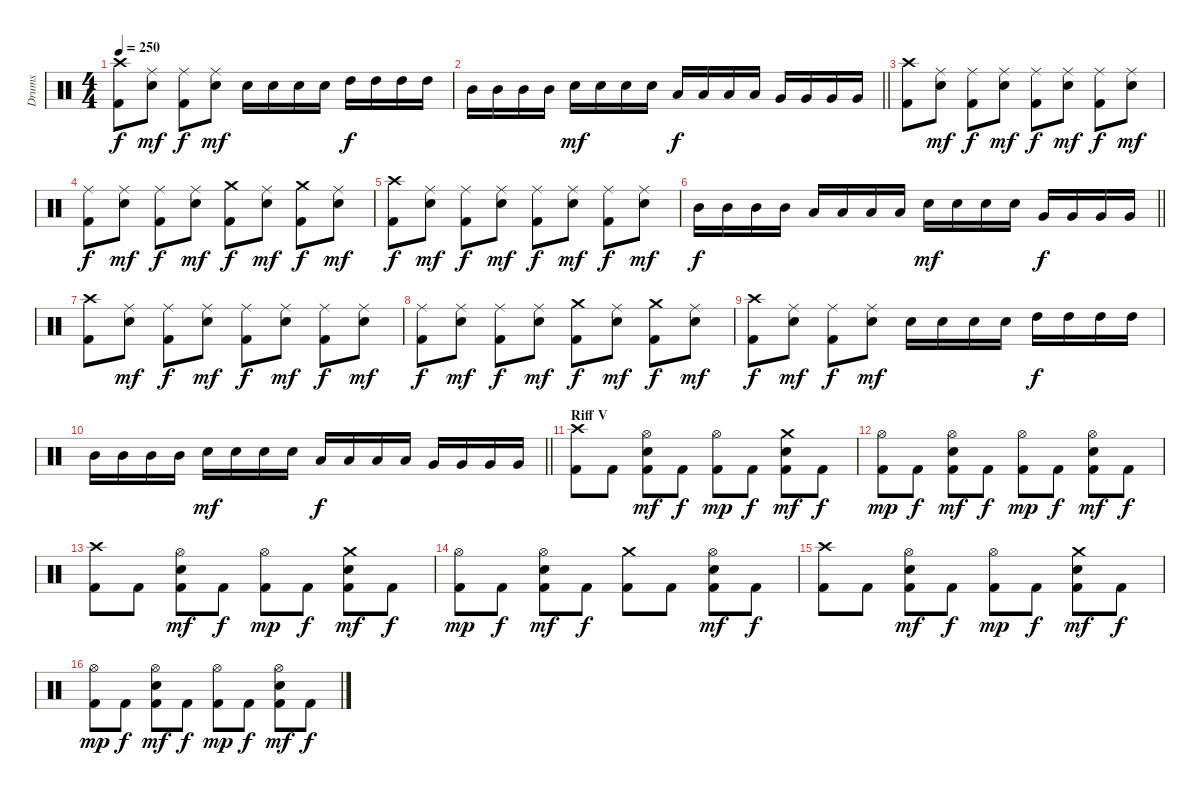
\track ("Drums" "Drums") {instrument percussion}
\staff {score}
\articulation defaults
\ts (4 4)
\tempo 250
\clef neutral
\ks c
("Crash high (hit)" "Kick (hit) 2").8{dy f} ("Ride (middle)" "Electric Snare (hit)").8{dy mf} ("Ride (middle)" "Kick (hit) 2").8{dy f} ("Ride (middle)" "Electric Snare (hit)").8{dy mf} "Electric Snare (hit)".16 "Electric Snare (hit)".16 "Electric Snare (hit)".16 "Electric Snare (hit)".16 "High Tom (hit)".16{dy f} "High Tom (hit)".16 "High Tom (hit)".16 "High Tom (hit)".16 |
\barLineRight lightlight "Mid Tom (hit)".16 "Mid Tom (hit)".16 "Mid Tom (hit)".16 "Mid Tom (hit)".16 "Electric Snare (hit)".16{dy mf} "Electric Snare (hit)".16 "Electric Snare (hit)".16 "Electric Snare (hit)".16 "Low Tom (hit)".16{dy f} "Low Tom (hit)".16 "Low Tom (hit)".16 "Low Tom (hit)".16 "Very Low Tom (hit)".16 "Very Low Tom (hit)".16 "Very Low Tom (hit)".16 "Very Low Tom (hit)".16
|
("Crash high (hit)" "Kick (hit) 2").8 ("Ride (middle)" "Electric Snare (hit)").8{dy mf} ("Ride (middle)" "Kick (hit) 2").8{dy f} ("Ride (middle)" "Electric Snare (hit)").8{dy mf} ("Ride (middle)" "Kick (hit) 2").8{dy f} ("Ride (middle)" "Electric Snare (hit)").8{dy mf} ("Ride (middle)" "Kick (hit) 2").8{dy f} ("Ride (middle)" "Electric Snare (hit)").8{dy mf} |
("Ride (middle)" "Kick (hit) 2").8{dy f} ("Ride (middle)" "Electric Snare (hit)").8{dy mf} ("Ride (middle)" "Kick (hit) 2").8{dy f} ("Ride (middle)" "Electric Snare (hit)").8{dy mf} ("Crash medium (hit)" "Kick (hit) 2").8{dy f} ("Ride (middle)" "Electric Snare (hit)").8{dy mf} ("Crash medium (hit)" "Kick (hit) 2").8{dy f} ("Ride (middle)" "Electric Snare (hit)").8{dy mf} |
("Crash high (hit)" "Kick (hit) 2").8{dy f} ("Ride (middle)" "Electric Snare (hit)").8{dy mf} ("Ride (middle)" "Kick (hit) 2").8{dy f} ("Ride (middle)" "Electric Snare (hit)").8{dy mf} ("Ride (middle)" "Kick (hit) 2").8{dy f} ("Ride (middle)" "Electric Snare (hit)").8{dy mf} ("Ride (middle)" "Kick (hit) 2").8{dy f} ("Ride (middle)" "Electric Snare (hit)").8{dy mf} |
\barLineRight lightlight "Mid Tom (hit)".16{dy f} "Mid Tom (hit)".16 "Mid Tom (hit)".16 "Mid Tom (hit)".16 "Low Tom (hit)".16 "Low Tom (hit)".16 "Low Tom (hit)".16 "Low Tom (hit)".16 "Electric Snare (hit)".16{dy mf} "Electric Snare (hit)".16 "Electric Snare (hit)".16 "Electric Snare (hit)".16 "Very Low Tom (hit)".16{dy f} "Very Low Tom (hit)".16 "Very Low Tom (hit)".16 "Very Low Tom (hit)".16
|
("Crash high (hit)" "Kick (hit) 2").8 ("Ride (middle)" "Electric Snare (hit)").8{dy mf} ("Ride (middle)" "Kick (hit) 2").8{dy f} ("Ride (middle)" "Electric Snare (hit)").8{dy mf} ("Ride (middle)" "Kick (hit) 2").8{dy f} ("Ride (middle)" "Electric Snare (hit)").8{dy mf} ("Ride (middle)" "Kick (hit) 2").8{dy f} ("Ride (middle)" "Electric Snare (hit)").8{dy mf} |
("Ride (middle)" "Kick (hit) 2").8{dy f} ("Ride (middle)" "Electric Snare (hit)").8{dy mf} ("Ride (middle)" "Kick (hit) 2").8{dy f} ("Ride (middle)" "Electric Snare (hit)").8{dy mf} ("Crash medium (hit)" "Kick (hit) 2").8{dy f} ("Ride (middle)" "Electric Snare (hit)").8{dy mf} ("Crash medium (hit)" "Kick (hit) 2").8{dy f} ("Ride (middle)" "Electric Snare (hit)").8{dy mf} |
("Crash high (hit)" "Kick (hit) 2").8{dy f} ("Ride (middle)" "Electric Snare (hit)").8{dy mf} ("Ride (middle)" "Kick (hit) 2").8{dy f} ("Ride (middle)" "Electric Snare (hit)").8{dy mf} "Electric Snare (hit)".16 "Electric Snare (hit)".16 "Electric Snare (hit)".16 "Electric Snare (hit)".16 "High Tom (hit)".16{dy f} "High Tom (hit)".16 "High Tom (hit)".16 "High Tom (hit)".16 |
\barLineRight lightlight "Mid Tom (hit)".16 "Mid Tom (hit)".16 "Mid Tom (hit)".16 "Mid Tom (hit)".16 "Electric Snare (hit)".16{dy mf} "Electric Snare (hit)".16 "Electric Snare (hit)".16 "Electric Snare (hit)".16 "Low Tom (hit)".16{dy f} "Low Tom (hit)".16 "Low Tom (hit)".16 "Low Tom (hit)".16 "Very Low Tom (hit)".16 "Very Low Tom (hit)".16 "Very Low Tom (hit)".16 "Very Low Tom (hit)".16
|
\section ("" "Riff V")
("Crash high (hit)" "Kick (hit) 2").8 "Kick (hit) 2".8 ("Hi-Hat (open)" "Electric Snare (hit)" "Kick (hit) 2").8{dy mf} "Kick (hit) 2".8{dy f} ("Hi-Hat (open)" "Kick (hit) 2").8{dy mp} "Kick (hit) 2".8{dy f} ("Crash medium (hit)" "Electric Snare (hit)" "Kick (hit) 2").8{dy mf} "Kick (hit) 2".8{dy f} |
("Hi-Hat (open)" "Kick (hit) 2").8{dy mp} "Kick (hit) 2".8{dy f} ("Hi-Hat (open)" "Electric Snare (hit)" "Kick (hit) 2").8{dy mf} "Kick (hit) 2".8{dy f} ("Hi-Hat (open)" "Kick (hit) 2").8{dy mp} "Kick (hit) 2".8{dy f} ("Hi-Hat (open)" "Electric Snare (hit)" "Kick (hit) 2").8{dy mf} "Kick (hit) 2".8{dy f} |
("Crash high (hit)" "Kick (hit) 2").8 "Kick (hit) 2".8 ("Hi-Hat (open)" "Electric Snare (hit)" "Kick (hit) 2").8{dy mf} "Kick (hit) 2".8{dy f} ("Hi-Hat (open)" "Kick (hit) 2").8{dy mp} "Kick (hit) 2".8{dy f} ("Crash medium (hit)" "Electric Snare (hit)" "Kick (hit) 2").8{dy mf} "Kick (hit) 2".8{dy f} |
("Hi-Hat (open)" "Kick (hit) 2").8{dy mp} "Kick (hit) 2".8{dy f} ("Hi-Hat (open)" "Electric Snare (hit)" "Kick (hit) 2").8{dy mf} "Kick (hit) 2".8{dy f} ("Crash medium (hit)" "Kick (hit) 2").8 "Kick (hit) 2".8 ("Hi-Hat (open)" "Electric Snare (hit)" "Kick (hit) 2").8{dy mf} "Kick (hit) 2".8{dy f} |
("Crash high (hit)" "Kick (hit) 2").8 "Kick (hit) 2".8 ("Hi-Hat (open)" "Electric Snare (hit)" "Kick (hit) 2").8{dy mf} "Kick (hit) 2".8{dy f} ("Hi-Hat (open)" "Kick (hit) 2").8{dy mp} "Kick (hit) 2".8{dy f} ("Crash medium (hit)" "Electric Snare (hit)" "Kick (hit) 2").8{dy mf} "Kick (hit) 2".8{dy f} |
("Hi-Hat (open)" "Kick (hit) 2").8{dy mp} "Kick (hit) 2".8{dy f} ("Hi-Hat (open)" "Electric Snare (hit)" "Kick (hit) 2").8{dy mf} "Kick (hit) 2".8{dy f} ("Hi-Hat (open)" "Kick (hit) 2").8{dy mp} "Kick (hit) 2".8{dy f} ("Hi-Hat (open)" "Electric Snare (hit)" "Kick (hit) 2").8{dy mf} "Kick (hit) 2".8{dy f}
